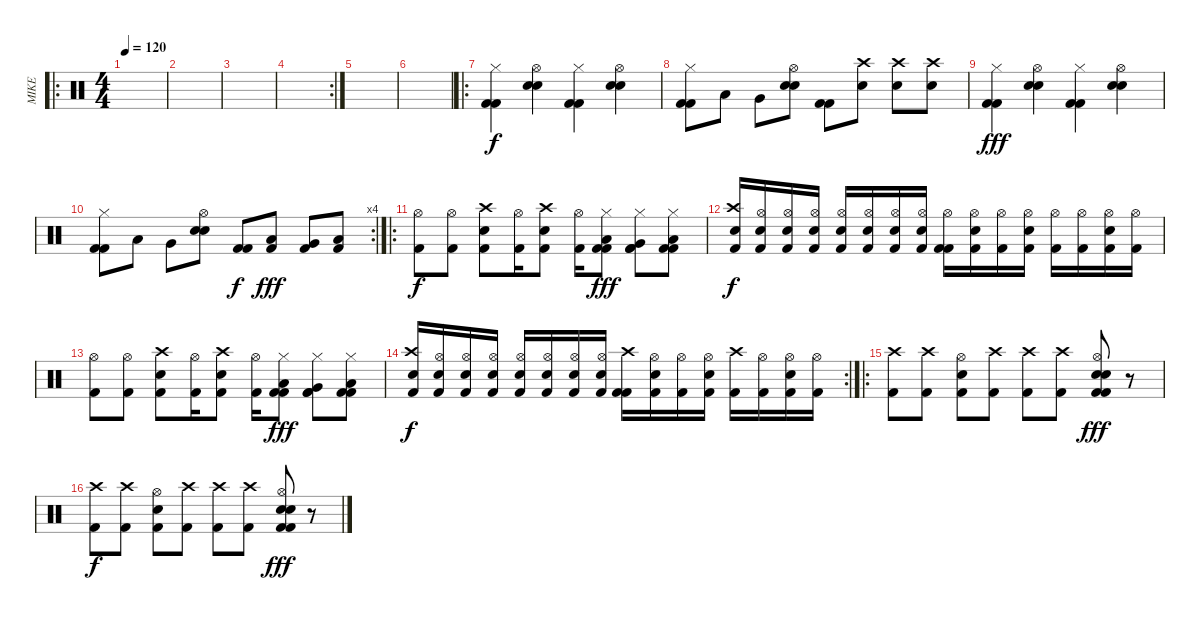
\track ("MIKE" "MIKE") {instrument percussion}
\staff {score}
\articulation defaults
\ro
\ts (4 4)
\tempo 120
\clef neutral
\ks c
|
|
|
\rc 2
|
|
|
\ro
("Hi-Hat (closed)" "Kick (hit) 2" "Kick (hit) 2").4 ("Hi-Hat (open)" "Electric Snare (hit)" "Electric Snare (hit)").4 ("Hi-Hat (closed)" "Kick (hit) 2" "Kick (hit) 2").4 ("Hi-Hat (open)" "Electric Snare (hit)" "Electric Snare (hit)").4 |
("Hi-Hat (closed)" "Kick (hit) 2" "Kick (hit) 2").8 "Low Tom (hit)".8 "Very Low Tom (hit)".8 ("Hi-Hat (open)" "Electric Snare (hit)" "Electric Snare (hit)").8 ("Kick (hit) 2" "Kick (hit) 2").8{dy f} ("Crash high (hit)" "Electric Snare (hit)").8 ("Crash high (hit)" "Electric Snare (hit)").8 ("Crash high (hit)" "Electric Snare (hit)").8 |
("Hi-Hat (closed)" "Kick (hit) 2" "Kick (hit) 2").4{dy fff} ("Hi-Hat (open)" "Electric Snare (hit)" "Electric Snare (hit)").4 ("Hi-Hat (closed)" "Kick (hit) 2" "Kick (hit) 2").4 ("Hi-Hat (open)" "Electric Snare (hit)" "Electric Snare (hit)").4 |
\rc 4
("Hi-Hat (closed)" "Kick (hit) 2" "Kick (hit) 2").8 "Low Tom (hit)".8 "Very Low Tom (hit)".8 ("Hi-Hat (open)" "Electric Snare (hit)" "Electric Snare (hit)").8 ("Kick (hit) 2" "Kick (hit) 2").8{dy f} ("Low Tom (hit)" "Kick (hit) 2").8{dy fff} ("Very Low Tom (hit)" "Kick (hit) 2").8 ("Low Floor Tom (hit)" "Kick (hit) 2").8 |
\ro
("Hi-Hat (open)" "Kick (hit) 2").8{dy f} ("Hi-Hat (open)" "Kick (hit) 2").8 ("Crash high (hit)" "Electric Snare (hit)" "Kick (hit) 2").8 ("Hi-Hat (open)" "Kick (hit) 2").16 ("Crash high (hit)" "Electric Snare (hit)" "Kick (hit) 2").8 ("Hi-Hat (open)" "Kick (hit) 2").16 ("Hi-Hat (closed)" "Low Tom (hit)" "Kick (hit) 2" "Kick (hit) 2").8{dy fff} ("Hi-Hat (closed)" "Very Low Tom (hit)" "Kick (hit) 2" "Kick (hit) 2").8 ("Hi-Hat (closed)" "Low Floor Tom (hit)" "Kick (hit) 2" "Kick (hit) 2").8 |
("Crash high (hit)" "Kick (hit) 2" "Snare (hit) 2").16{dy f} ("Hi-Hat (open)" "Kick (hit) 2" "Snare (hit) 2").16 ("Hi-Hat (open)" "Kick (hit) 2" "Electric Snare (hit)").16 ("Hi-Hat (open)" "Kick (hit) 2" "Snare (hit) 2").16 ("Hi-Hat (open)" "Kick (hit) 2" "Snare (hit) 2").16 ("Hi-Hat (open)" "Kick (hit) 2" "Snare (hit) 2").16 ("Hi-Hat (open)" "Kick (hit) 2" "Snare (hit) 2").16 ("Hi-Hat (open)" "Kick (hit) 2" "Electric Snare (hit)").16 ("Hi-Hat (open)" "Kick (hit) 2" "Kick (hit) 2").16 ("Hi-Hat (open)" "Kick (hit) 2" "Snare (hit) 2").16 ("Hi-Hat (open)" "Kick (hit) 2").16 ("Hi-Hat (open)" "Kick (hit) 2" "Snare (hit) 2").16 ("Hi-Hat (open)" "Kick (hit) 2").16 ("Hi-Hat (open)" "Kick (hit) 2").16 ("Hi-Hat (open)" "Kick (hit) 2" "Snare (hit) 2").16 ("Hi-Hat (open)" "Kick (hit) 2").16 |
("Hi-Hat (open)" "Kick (hit) 2").8 ("Hi-Hat (open)" "Kick (hit) 2").8 ("Crash high (hit)" "Electric Snare (hit)" "Kick (hit) 2").8 ("Hi-Hat (open)" "Kick (hit) 2").16 ("Crash high (hit)" "Electric Snare (hit)" "Kick (hit) 2").8 ("Hi-Hat (open)" "Kick (hit) 2").16 ("Hi-Hat (closed)" "Low Tom (hit)" "Kick (hit) 2" "Kick (hit) 2").8{dy fff} ("Hi-Hat (closed)" "Very Low Tom (hit)" "Kick (hit) 2" "Kick (hit) 2").8 ("Hi-Hat (closed)" "Low Floor Tom (hit)" "Kick (hit) 2" "Kick (hit) 2").8 |
\rc 2
("Crash high (hit)" "Kick (hit) 2" "Snare (hit) 2").16{dy f} ("Hi-Hat (open)" "Kick (hit) 2" "Snare (hit) 2").16 ("Hi-Hat (open)" "Kick (hit) 2" "Electric Snare (hit)").16 ("Hi-Hat (open)" "Kick (hit) 2" "Snare (hit) 2").16 ("Hi-Hat (open)" "Kick (hit) 2" "Snare (hit) 2").16 ("Hi-Hat (open)" "Kick (hit) 2" "Snare (hit) 2").16 ("Hi-Hat (open)" "Kick (hit) 2" "Snare (hit) 2").16 ("Hi-Hat (open)" "Kick (hit) 2" "Electric Snare (hit)").16 ("Crash high (hit)" "Kick (hit) 2" "Kick (hit) 2").16 ("Hi-Hat (open)" "Kick (hit) 2" "Snare (hit) 2").16 ("Hi-Hat (open)" "Kick (hit) 2").16 ("Hi-Hat (open)" "Kick (hit) 2" "Snare (hit) 2").16 ("Crash high (hit)" "Kick (hit) 2").16 ("Hi-Hat (open)" "Kick (hit) 2").16 ("Hi-Hat (open)" "Kick (hit) 2" "Snare (hit) 2").16 ("Hi-Hat (open)" "Kick (hit) 2").16 |
\ro
("Crash high (hit)" "Kick (hit) 2").8 ("Crash high (hit)" "Kick (hit) 2").8 ("Hi-Hat (open)" "Electric Snare (hit)" "Kick (hit) 2").8 ("Crash high (hit)" "Kick (hit) 2").8 ("Crash high (hit)" "Kick (hit) 2").8 ("Crash high (hit)" "Kick (hit) 2").8 ("Hi-Hat (open)" "Kick (hit) 2" "Electric Snare (hit)" "Electric Snare (hit)" "Kick (hit) 2").8{dy fff} r.8 |
("Crash high (hit)" "Kick (hit) 2").8{dy f} ("Crash high (hit)" "Kick (hit) 2").8 ("Hi-Hat (open)" "Electric Snare (hit)" "Kick (hit) 2").8 ("Crash high (hit)" "Kick (hit) 2").8 ("Crash high (hit)" "Kick (hit) 2").8 ("Crash high (hit)" "Kick (hit) 2").8 ("Hi-Hat (open)" "Kick (hit) 2" "Electric Snare (hit)" "Electric Snare (hit)" "Kick (hit) 2").8{dy fff} r.8
